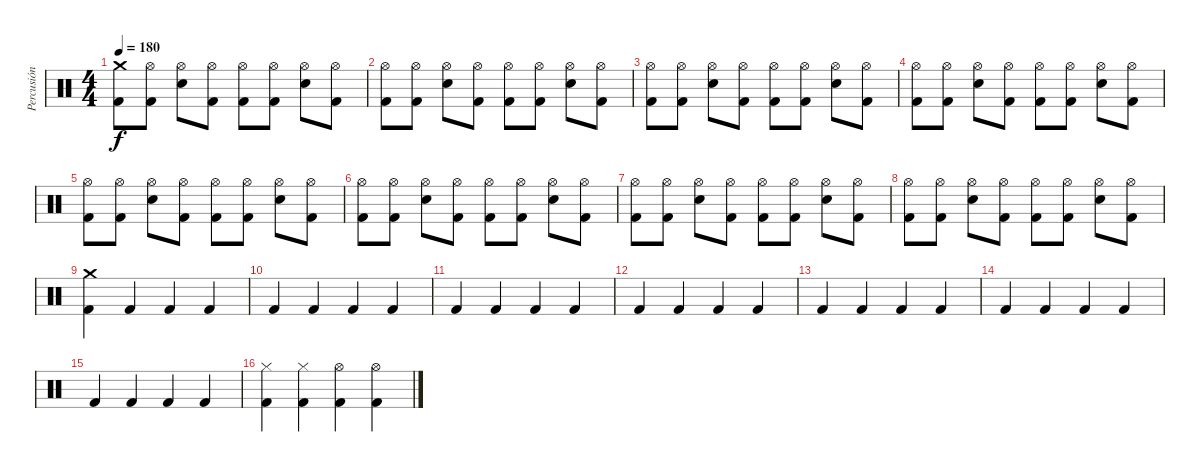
\track ("Percusión" "Percusión") {instrument percussion}
\staff {score}
\articulation defaults
\ts (4 4)
\tempo 180
\clef neutral
\ks c
("Kick (hit) 2" "Crash medium (hit)").8{dy f} ("Kick (hit) 2" "Hi-Hat (open)").8 ("Electric Snare (hit)" "Hi-Hat (open)").8 ("Kick (hit) 2" "Hi-Hat (open)").8 ("Kick (hit) 2" "Hi-Hat (open)").8 ("Kick (hit) 2" "Hi-Hat (open)").8 ("Electric Snare (hit)" "Hi-Hat (open)").8 ("Kick (hit) 2" "Hi-Hat (open)").8 |
("Kick (hit) 2" "Hi-Hat (open)").8 ("Kick (hit) 2" "Hi-Hat (open)").8 ("Electric Snare (hit)" "Hi-Hat (open)").8 ("Kick (hit) 2" "Hi-Hat (open)").8 ("Kick (hit) 2" "Hi-Hat (open)").8 ("Kick (hit) 2" "Hi-Hat (open)").8 ("Electric Snare (hit)" "Hi-Hat (open)").8 ("Kick (hit) 2" "Hi-Hat (open)").8 |
("Kick (hit) 2" "Hi-Hat (open)").8 ("Kick (hit) 2" "Hi-Hat (open)").8 ("Electric Snare (hit)" "Hi-Hat (open)").8 ("Kick (hit) 2" "Hi-Hat (open)").8 ("Kick (hit) 2" "Hi-Hat (open)").8 ("Kick (hit) 2" "Hi-Hat (open)").8 ("Electric Snare (hit)" "Hi-Hat (open)").8 ("Kick (hit) 2" "Hi-Hat (open)").8 |
("Kick (hit) 2" "Hi-Hat (open)").8 ("Kick (hit) 2" "Hi-Hat (open)").8 ("Electric Snare (hit)" "Hi-Hat (open)").8 ("Kick (hit) 2" "Hi-Hat (open)").8 ("Kick (hit) 2" "Hi-Hat (open)").8 ("Kick (hit) 2" "Hi-Hat (open)").8 ("Electric Snare (hit)" "Hi-Hat (open)").8 ("Kick (hit) 2" "Hi-Hat (open)").8 |
("Kick (hit) 2" "Hi-Hat (open)").8 ("Kick (hit) 2" "Hi-Hat (open)").8 ("Electric Snare (hit)" "Hi-Hat (open)").8 ("Kick (hit) 2" "Hi-Hat (open)").8 ("Kick (hit) 2" "Hi-Hat (open)").8 ("Kick (hit) 2" "Hi-Hat (open)").8 ("Electric Snare (hit)" "Hi-Hat (open)").8 ("Kick (hit) 2" "Hi-Hat (open)").8 |
("Kick (hit) 2" "Hi-Hat (open)").8 ("Kick (hit) 2" "Hi-Hat (open)").8 ("Electric Snare (hit)" "Hi-Hat (open)").8 ("Kick (hit) 2" "Hi-Hat (open)").8 ("Kick (hit) 2" "Hi-Hat (open)").8 ("Kick (hit) 2" "Hi-Hat (open)").8 ("Electric Snare (hit)" "Hi-Hat (open)").8 ("Kick (hit) 2" "Hi-Hat (open)").8 |
("Kick (hit) 2" "Hi-Hat (open)").8 ("Kick (hit) 2" "Hi-Hat (open)").8 ("Electric Snare (hit)" "Hi-Hat (open)").8 ("Kick (hit) 2" "Hi-Hat (open)").8 ("Kick (hit) 2" "Hi-Hat (open)").8 ("Kick (hit) 2" "Hi-Hat (open)").8 ("Electric Snare (hit)" "Hi-Hat (open)").8 ("Kick (hit) 2" "Hi-Hat (open)").8 |
("Kick (hit) 2" "Hi-Hat (open)").8 ("Kick (hit) 2" "Hi-Hat (open)").8 ("Electric Snare (hit)" "Hi-Hat (open)").8 ("Kick (hit) 2" "Hi-Hat (open)").8 ("Kick (hit) 2" "Hi-Hat (open)").8 ("Kick (hit) 2" "Hi-Hat (open)").8 ("Electric Snare (hit)" "Hi-Hat (open)").8 ("Kick (hit) 2" "Hi-Hat (open)").8 |
("Kick (hit) 2" "Crash medium (hit)").4 "Kick (hit) 2".4 "Kick (hit) 2".4 "Kick (hit) 2".4 |
"Kick (hit) 2".4 "Kick (hit) 2".4 "Kick (hit) 2".4 "Kick (hit) 2".4 |
"Kick (hit) 2".4 "Kick (hit) 2".4 "Kick (hit) 2".4 "Kick (hit) 2".4 |
"Kick (hit) 2".4 "Kick (hit) 2".4 "Kick (hit) 2".4 "Kick (hit) 2".4 |
"Kick (hit) 2".4 "Kick (hit) 2".4 "Kick (hit) 2".4 "Kick (hit) 2".4 |
"Kick (hit) 2".4 "Kick (hit) 2".4 "Kick (hit) 2".4 "Kick (hit) 2".4 |
"Kick (hit) 2".4 "Kick (hit) 2".4 "Kick (hit) 2".4 "Kick (hit) 2".4 |
("Kick (hit) 2" "Hi-Hat (closed)").4 ("Kick (hit) 2" "Hi-Hat (closed)").4 ("Kick (hit) 2" "Hi-Hat (open)").4 ("Kick (hit) 2" "Hi-Hat (open)").4
